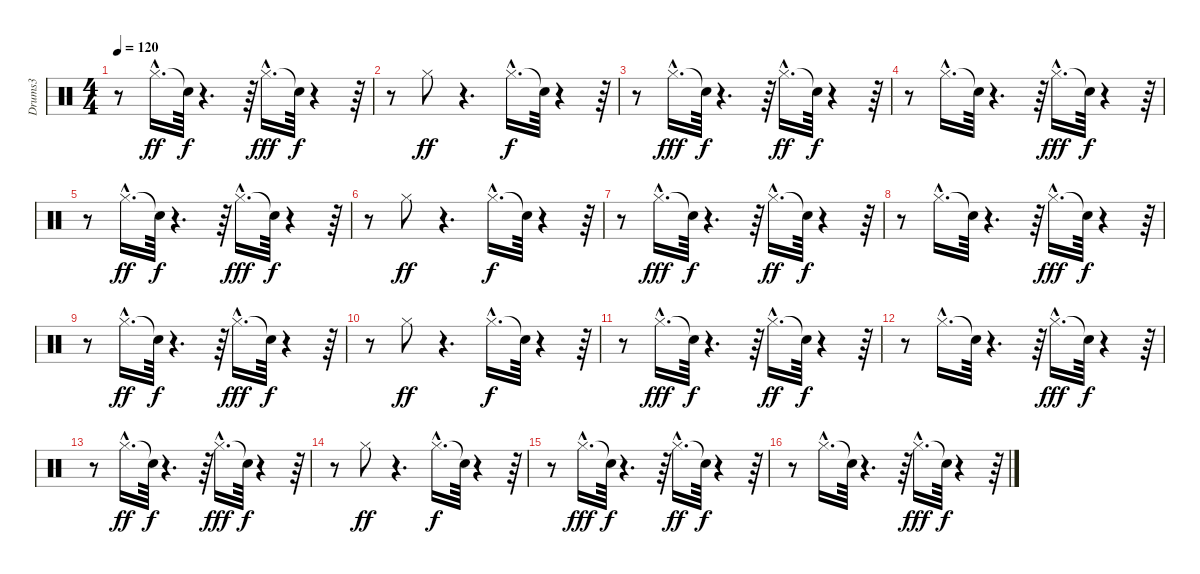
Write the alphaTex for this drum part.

\track ("Drums3" "Drums3") {instrument percussion}
\staff {score}
\articulation defaults
\ts (4 4)
\tempo 120
\clef neutral
\ks c
r.8{dy f} "Hi-Hat (closed)"{hac}.16{d dy ff} "Snare (hit)"{t}.64{dy f} r.4{d} r.64 "Hi-Hat (closed)"{hac}.16{d dy fff} "Snare (hit)"{t}.64{dy f} r.4 r.64 |
r.8 "Hi-Hat (closed)".8{dy ff} r.4{d} "Hi-Hat (closed)"{hac}.16{d dy f} "Snare (hit)"{t}.64 r.4 r.64 |
r.8 "Hi-Hat (closed)"{hac}.16{d dy fff} "Snare (hit)"{t}.64{dy f} r.4{d} r.64 "Hi-Hat (closed)"{hac}.16{d dy ff} "Snare (hit)"{t}.64{dy f} r.4 r.64 |
r.8 "Hi-Hat (closed)"{hac}.16{d} "Snare (hit)"{t}.64 r.4{d} r.64 "Hi-Hat (closed)"{hac}.16{d dy fff} "Snare (hit)"{t}.64{dy f} r.4 r.64 |
r.8 "Hi-Hat (closed)"{hac}.16{d dy ff} "Snare (hit)"{t}.64{dy f} r.4{d} r.64 "Hi-Hat (closed)"{hac}.16{d dy fff} "Snare (hit)"{t}.64{dy f} r.4 r.64 |
r.8 "Hi-Hat (closed)".8{dy ff} r.4{d} "Hi-Hat (closed)"{hac}.16{d dy f} "Snare (hit)"{t}.64 r.4 r.64 |
r.8 "Hi-Hat (closed)"{hac}.16{d dy fff} "Snare (hit)"{t}.64{dy f} r.4{d} r.64 "Hi-Hat (closed)"{hac}.16{d dy ff} "Snare (hit)"{t}.64{dy f} r.4 r.64 |
r.8 "Hi-Hat (closed)"{hac}.16{d} "Snare (hit)"{t}.64 r.4{d} r.64 "Hi-Hat (closed)"{hac}.16{d dy fff} "Snare (hit)"{t}.64{dy f} r.4 r.64 |
r.8 "Hi-Hat (closed)"{hac}.16{d dy ff} "Snare (hit)"{t}.64{dy f} r.4{d} r.64 "Hi-Hat (closed)"{hac}.16{d dy fff} "Snare (hit)"{t}.64{dy f} r.4 r.64 |
r.8 "Hi-Hat (closed)".8{dy ff} r.4{d} "Hi-Hat (closed)"{hac}.16{d dy f} "Snare (hit)"{t}.64 r.4 r.64 |
r.8 "Hi-Hat (closed)"{hac}.16{d dy fff} "Snare (hit)"{t}.64{dy f} r.4{d} r.64 "Hi-Hat (closed)"{hac}.16{d dy ff} "Snare (hit)"{t}.64{dy f} r.4 r.64 |
r.8 "Hi-Hat (closed)"{hac}.16{d} "Snare (hit)"{t}.64 r.4{d} r.64 "Hi-Hat (closed)"{hac}.16{d dy fff} "Snare (hit)"{t}.64{dy f} r.4 r.64 |
r.8 "Hi-Hat (closed)"{hac}.16{d dy ff} "Snare (hit)"{t}.64{dy f} r.4{d} r.64 "Hi-Hat (closed)"{hac}.16{d dy fff} "Snare (hit)"{t}.64{dy f} r.4 r.64 |
r.8 "Hi-Hat (closed)".8{dy ff} r.4{d} "Hi-Hat (closed)"{hac}.16{d dy f} "Snare (hit)"{t}.64 r.4 r.64 |
r.8 "Hi-Hat (closed)"{hac}.16{d dy fff} "Snare (hit)"{t}.64{dy f} r.4{d} r.64 "Hi-Hat (closed)"{hac}.16{d dy ff} "Snare (hit)"{t}.64{dy f} r.4 r.64 |
r.8 "Hi-Hat (closed)"{hac}.16{d} "Snare (hit)"{t}.64 r.4{d} r.64 "Hi-Hat (closed)"{hac}.16{d dy fff} "Snare (hit)"{t}.64{dy f} r.4 r.64
